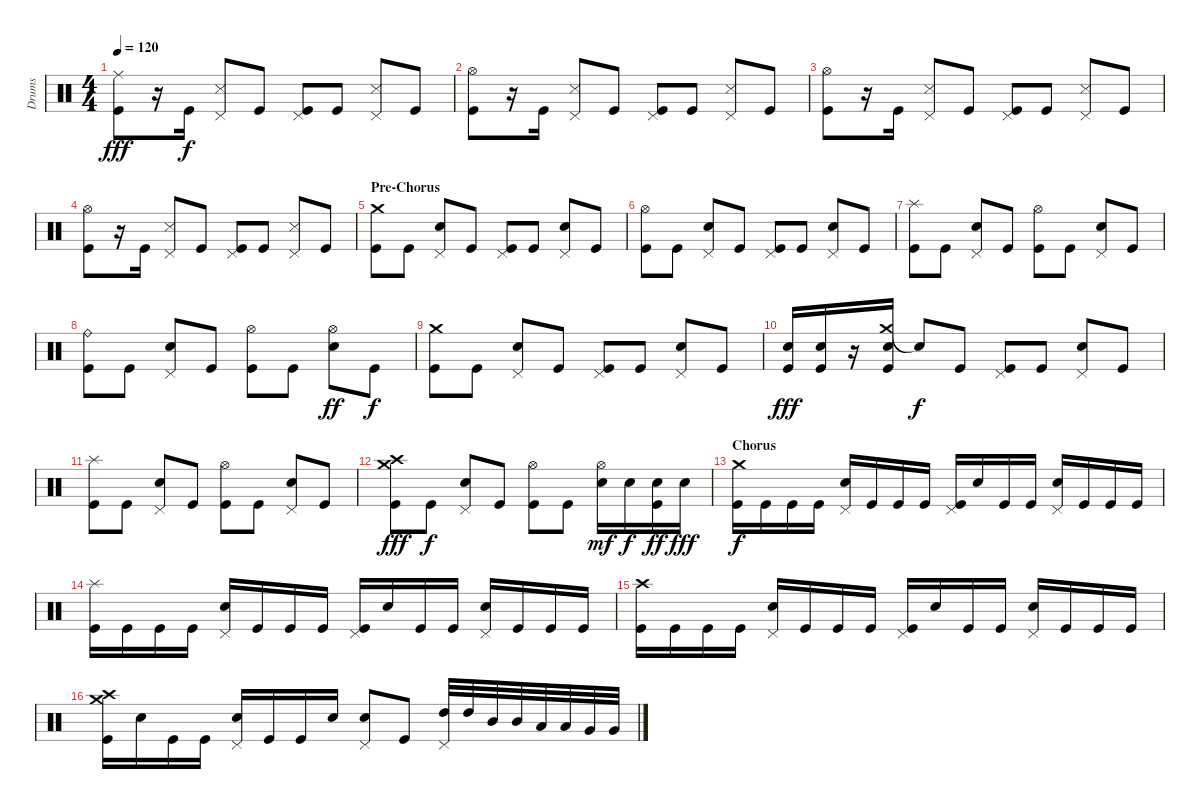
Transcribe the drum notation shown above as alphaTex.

\track ("Drums" "Drums") {instrument percussion}
\staff {score}
\articulation defaults
\ts (4 4)
\tempo 120
\clef neutral
\ks c
("Ride (middle)" "Kick (hit)").8{dy fff} r.16 "Kick (hit)".16{dy f} ("Pedal Hi-Hat (hit)" "Snare (side stick) 3").8 "Kick (hit)".8 ("Pedal Hi-Hat (hit)" "Kick (hit)").8 "Kick (hit)".8 ("Pedal Hi-Hat (hit)" "Snare (side stick) 3").8 "Kick (hit)".8 |
("Hi-Hat (open)" "Kick (hit)").8 r.16 "Kick (hit)".16 ("Pedal Hi-Hat (hit)" "Snare (side stick) 3").8 "Kick (hit)".8 ("Pedal Hi-Hat (hit)" "Kick (hit)").8 "Kick (hit)".8 ("Pedal Hi-Hat (hit)" "Snare (side stick) 3").8 "Kick (hit)".8 |
("Hi-Hat (open)" "Kick (hit)").8 r.16 "Kick (hit)".16 ("Pedal Hi-Hat (hit)" "Snare (side stick) 3").8 "Kick (hit)".8 ("Pedal Hi-Hat (hit)" "Kick (hit)").8 "Kick (hit)".8 ("Pedal Hi-Hat (hit)" "Snare (side stick) 3").8 "Kick (hit)".8 |
("Hi-Hat (open)" "Kick (hit)").8 r.16 "Kick (hit)".16 ("Pedal Hi-Hat (hit)" "Snare (side stick) 3").8 "Kick (hit)".8 ("Pedal Hi-Hat (hit)" "Kick (hit)").8 "Kick (hit)".8 ("Pedal Hi-Hat (hit)" "Snare (side stick) 3").8 "Kick (hit)".8 |
\section ("" "Pre-Chorus")
("Crash medium (hit)" "Kick (hit)").8 "Kick (hit)".8 ("Pedal Hi-Hat (hit)" "Snare (hit) 2").8 "Kick (hit)".8 ("Pedal Hi-Hat (hit)" "Kick (hit)").8 "Kick (hit)".8 ("Pedal Hi-Hat (hit)" "Snare (hit) 2").8 "Kick (hit)".8 |
("Hi-Hat (open)" "Kick (hit)").8 "Kick (hit)".8 ("Pedal Hi-Hat (hit)" "Snare (hit) 2").8 "Kick (hit)".8 ("Pedal Hi-Hat (hit)" "Kick (hit)").8 "Kick (hit)".8 ("Pedal Hi-Hat (hit)" "Snare (hit) 2").8 "Kick (hit)".8 |
("Splash (hit)" "Kick (hit)").8 "Kick (hit)".8 ("Pedal Hi-Hat (hit)" "Snare (hit) 2").8 "Kick (hit)".8 ("Hi-Hat (open)" "Kick (hit)").8 "Kick (hit)".8 ("Pedal Hi-Hat (hit)" "Snare (hit) 2").8 "Kick (hit)".8 |
("Ride (bell)" "Kick (hit)").8 "Kick (hit)".8 ("Pedal Hi-Hat (hit)" "Snare (hit) 2").8 "Kick (hit)".8 ("Hi-Hat (open)" "Kick (hit)").8 "Kick (hit)".8 ("Hi-Hat (open)" "Snare (hit) 2").8{dy ff} "Kick (hit)".8{dy f} |
("Crash medium (hit)" "Kick (hit)").8 "Kick (hit)".8 ("Pedal Hi-Hat (hit)" "Snare (hit) 2").8 "Kick (hit)".8 ("Pedal Hi-Hat (hit)" "Kick (hit)").8 "Kick (hit)".8 ("Pedal Hi-Hat (hit)" "Snare (hit) 2").8 "Kick (hit)".8 |
("Snare (hit) 2" "Kick (hit)").16{dy fff} ("Snare (hit) 2" "Kick (hit)").16 r.16 ("Crash medium (hit)" "Snare (hit) 2" "Kick (hit)").16 "Snare (hit) 2"{t}.8{dy f} "Kick (hit)".8 ("Pedal Hi-Hat (hit)" "Kick (hit)").8 "Kick (hit)".8 ("Pedal Hi-Hat (hit)" "Snare (hit) 2").8 "Kick (hit)".8 |
("Splash (hit)" "Kick (hit)").8 "Kick (hit)".8 ("Pedal Hi-Hat (hit)" "Snare (hit) 2").8 "Kick (hit)".8 ("Hi-Hat (open)" "Kick (hit)").8 "Kick (hit)".8 ("Pedal Hi-Hat (hit)" "Snare (hit) 2").8 "Kick (hit)".8 |
("Crash medium (hit)" "Crash high (hit)" "Kick (hit)").8{dy fff} "Kick (hit)".8{dy f} ("Pedal Hi-Hat (hit)" "Snare (hit) 2").8 "Kick (hit)".8 ("Hi-Hat (open)" "Kick (hit)").8 "Kick (hit)".8 ("Hi-Hat (open)" "Electric Snare (hit)").16{dy mf} "Electric Snare (hit)".16{dy f} ("Electric Snare (hit)" "Kick (hit)").16{dy ff} "Electric Snare (hit)".16{dy fff} |
\section ("" "Chorus")
("Crash medium (hit)" "Kick (hit)").16{dy f} "Kick (hit)".16 "Kick (hit)".16 "Kick (hit)".16 ("Pedal Hi-Hat (hit)" "Electric Snare (hit)").16 "Kick (hit)".16 "Kick (hit)".16 "Kick (hit)".16 ("Pedal Hi-Hat (hit)" "Kick (hit)").16 "Electric Snare (hit)".16 "Kick (hit)".16 "Kick (hit)".16 ("Pedal Hi-Hat (hit)" "Electric Snare (hit)").16 "Kick (hit)".16 "Kick (hit)".16 "Kick (hit)".16 |
("Splash (hit)" "Kick (hit)").16 "Kick (hit)".16 "Kick (hit)".16 "Kick (hit)".16 ("Pedal Hi-Hat (hit)" "Electric Snare (hit)").16 "Kick (hit)".16 "Kick (hit)".16 "Kick (hit)".16 ("Pedal Hi-Hat (hit)" "Kick (hit)").16 "Electric Snare (hit)".16 "Kick (hit)".16 "Kick (hit)".16 ("Pedal Hi-Hat (hit)" "Electric Snare (hit)").16 "Kick (hit)".16 "Kick (hit)".16 "Kick (hit)".16 |
("Crash high (hit)" "Kick (hit)").16 "Kick (hit)".16 "Kick (hit)".16 "Kick (hit)".16 ("Pedal Hi-Hat (hit)" "Electric Snare (hit)").16 "Kick (hit)".16 "Kick (hit)".16 "Kick (hit)".16 ("Pedal Hi-Hat (hit)" "Kick (hit)").16 "Electric Snare (hit)".16 "Kick (hit)".16 "Kick (hit)".16 ("Pedal Hi-Hat (hit)" "Electric Snare (hit)").16 "Kick (hit)".16 "Kick (hit)".16 "Kick (hit)".16 |
("Crash medium (hit)" "Crash high (hit)" "Kick (hit)").16 "Electric Snare (hit)".16 "Kick (hit)".16 "Kick (hit)".16 ("Pedal Hi-Hat (hit)" "Electric Snare (hit)").16 "Kick (hit)".16 "Kick (hit)".16 "Electric Snare (hit)".16 ("Pedal Hi-Hat (hit)" "Electric Snare (hit)").8 "Kick (hit)".8 ("Pedal Hi-Hat (hit)" "High Tom (hit)").32 "High Tom (hit)".32 "Mid Tom (hit)".32 "Mid Tom (hit)".32 "Low Tom (hit)".32 "Low Tom (hit)".32 "Very Low Tom (hit)".32 "Very Low Tom (hit)".32
